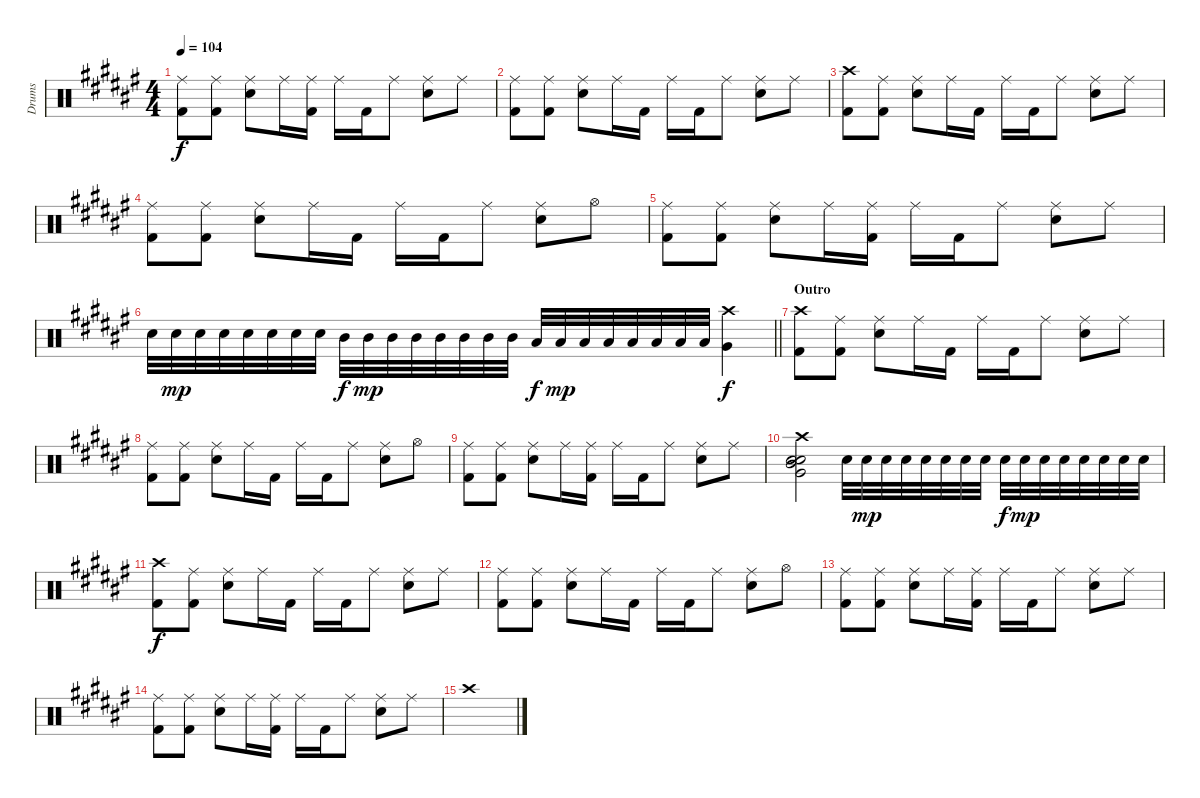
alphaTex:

\track ("Drums" "Drums") {instrument percussion}
\staff {score}
\articulation defaults
\ts (4 4)
\tempo 104
\clef neutral
\ks d#minor
("Ride (middle)" "Kick (hit) 2").8{dy f} ("Ride (middle)" "Kick (hit) 2").8 ("Ride (middle)" "Electric Snare (hit)").8 "Ride (middle)".16 ("Ride (middle)" "Kick (hit) 2").16 "Ride (middle)".16 "Kick (hit) 2".16 "Ride (middle)".8 ("Ride (middle)" "Electric Snare (hit)").8 "Ride (middle)".8 |
("Ride (middle)" "Kick (hit) 2").8 ("Ride (middle)" "Kick (hit) 2").8 ("Ride (middle)" "Electric Snare (hit)").8 "Ride (middle)".16 "Kick (hit) 2".16 "Ride (middle)".16 "Kick (hit) 2".16 "Ride (middle)".8 ("Ride (middle)" "Electric Snare (hit)").8 "Ride (middle)".8 |
("Crash high (hit)" "Kick (hit) 2").8 ("Ride (middle)" "Kick (hit) 2").8 ("Ride (middle)" "Electric Snare (hit)").8 "Ride (middle)".16 "Kick (hit) 2".16 "Ride (middle)".16 "Kick (hit) 2".16 "Ride (middle)".8 ("Ride (middle)" "Electric Snare (hit)").8 "Ride (middle)".8 |
("Ride (middle)" "Kick (hit) 2").8 ("Ride (middle)" "Kick (hit) 2").8 ("Ride (middle)" "Electric Snare (hit)").8 "Ride (middle)".16 "Kick (hit) 2".16 "Ride (middle)".16 "Kick (hit) 2".16 "Ride (middle)".8 ("Ride (middle)" "Electric Snare (hit)").8 "Hi-Hat (open)".8 |
("Ride (middle)" "Kick (hit) 2").8 ("Ride (middle)" "Kick (hit) 2").8 ("Ride (middle)" "Electric Snare (hit)").8 "Ride (middle)".16 ("Ride (middle)" "Kick (hit) 2").16 "Ride (middle)".16 "Kick (hit) 2".16 "Ride (middle)".8 ("Ride (middle)" "Electric Snare (hit)").8 "Ride (middle)".8 |
\barLineRight lightlight "Electric Snare (hit)".32 "Electric Snare (hit)".32{dy mp} "Electric Snare (hit)".32 "Electric Snare (hit)".32 "Electric Snare (hit)".32 "Electric Snare (hit)".32 "Electric Snare (hit)".32 "Electric Snare (hit)".32 "Mid Tom (hit)".32{dy f} "Mid Tom (hit)".32{dy mp} "Mid Tom (hit)".32 "Mid Tom (hit)".32 "Mid Tom (hit)".32 "Mid Tom (hit)".32 "Mid Tom (hit)".32 "Mid Tom (hit)".32 "Low Tom (hit)".32{dy f} "Low Tom (hit)".32{dy mp} "Low Tom (hit)".32 "Low Tom (hit)".32 "Low Tom (hit)".32 "Low Tom (hit)".32 "Low Tom (hit)".32 "Low Tom (hit)".32
("Very Low Tom (hit)" "Crash high (hit)").4{dy f} |
\section ("" "Outro")
("Crash high (hit)" "Kick (hit) 2").8 ("Ride (middle)" "Kick (hit) 2").8 ("Ride (middle)" "Electric Snare (hit)").8 "Ride (middle)".16 "Kick (hit) 2".16 "Ride (middle)".16 "Kick (hit) 2".16 "Ride (middle)".8 ("Ride (middle)" "Electric Snare (hit)").8 "Ride (middle)".8 |
("Ride (middle)" "Kick (hit) 2").8 ("Ride (middle)" "Kick (hit) 2").8 ("Ride (middle)" "Electric Snare (hit)").8 "Ride (middle)".16 "Kick (hit) 2".16 "Ride (middle)".16 "Kick (hit) 2".16 "Ride (middle)".8 ("Ride (middle)" "Electric Snare (hit)").8 "Hi-Hat (open)".8 |
("Ride (middle)" "Kick (hit) 2").8 ("Ride (middle)" "Kick (hit) 2").8 ("Ride (middle)" "Electric Snare (hit)").8 "Ride (middle)".16 ("Ride (middle)" "Kick (hit) 2").16 "Ride (middle)".16 "Kick (hit) 2".16 "Ride (middle)".8 ("Ride (middle)" "Electric Snare (hit)").8 "Ride (middle)".8 |
("Mid Tom (hit)" "Crash high (hit)" "Snare (hit) 2" "Very Low Tom (hit)" "Electric Snare (hit)").2 "Electric Snare (hit)".32 "Electric Snare (hit)".32{dy mp} "Electric Snare (hit)".32 "Electric Snare (hit)".32 "Electric Snare (hit)".32 "Electric Snare (hit)".32 "Electric Snare (hit)".32 "Electric Snare (hit)".32 "Electric Snare (hit)".32{dy f} "Electric Snare (hit)".32{dy mp} "Electric Snare (hit)".32 "Electric Snare (hit)".32 "Electric Snare (hit)".32 "Electric Snare (hit)".32 "Electric Snare (hit)".32 "Electric Snare (hit)".32 |
("Crash high (hit)" "Kick (hit) 2").8{dy f} ("Ride (middle)" "Kick (hit) 2").8 ("Ride (middle)" "Electric Snare (hit)").8 "Ride (middle)".16 "Kick (hit) 2".16 "Ride (middle)".16 "Kick (hit) 2".16 "Ride (middle)".8 ("Ride (middle)" "Electric Snare (hit)").8 "Ride (middle)".8 |
("Ride (middle)" "Kick (hit) 2").8 ("Ride (middle)" "Kick (hit) 2").8 ("Ride (middle)" "Electric Snare (hit)").8 "Ride (middle)".16 "Kick (hit) 2".16 "Ride (middle)".16 "Kick (hit) 2".16 "Ride (middle)".8 ("Ride (middle)" "Electric Snare (hit)").8 "Hi-Hat (open)".8 |
("Ride (middle)" "Kick (hit) 2").8 ("Ride (middle)" "Kick (hit) 2").8 ("Ride (middle)" "Electric Snare (hit)").8 "Ride (middle)".16 ("Ride (middle)" "Kick (hit) 2").16 "Ride (middle)".16 "Kick (hit) 2".16 "Ride (middle)".8 ("Ride (middle)" "Electric Snare (hit)").8 "Ride (middle)".8 |
("Ride (middle)" "Kick (hit) 2").8 ("Ride (middle)" "Kick (hit) 2").8 ("Ride (middle)" "Electric Snare (hit)").8 "Ride (middle)".16 ("Ride (middle)" "Kick (hit) 2").16 "Ride (middle)".16 "Kick (hit) 2".16 "Ride (middle)".8 ("Ride (middle)" "Electric Snare (hit)").8 "Ride (middle)".8 |
"Crash high (hit)".1
